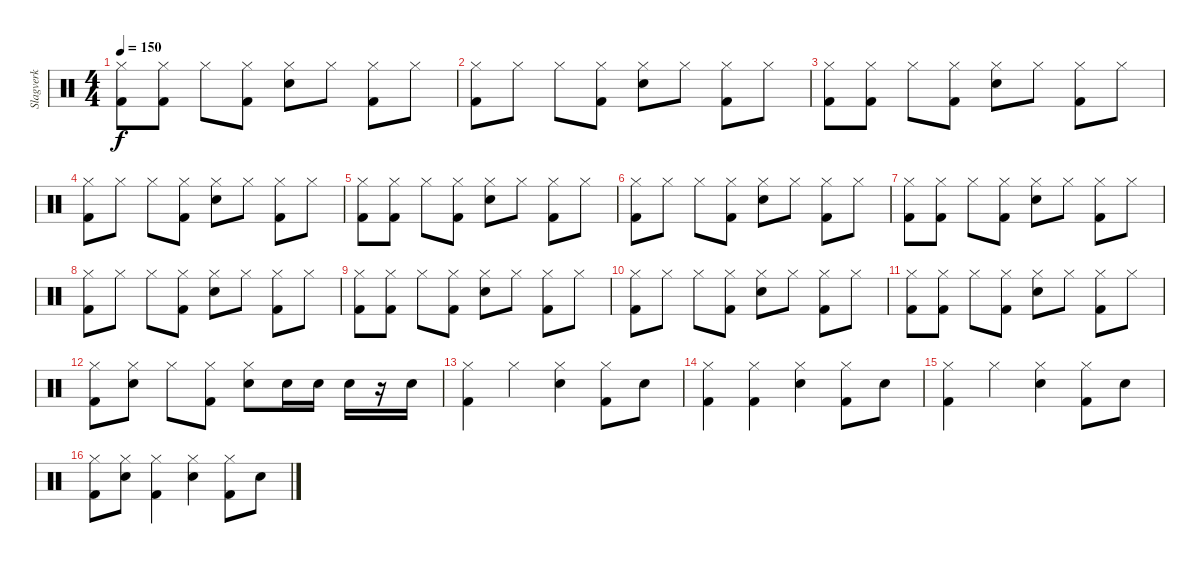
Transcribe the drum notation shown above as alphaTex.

\track ("Slagverk" "Slagverk") {instrument percussion}
\staff {score}
\articulation defaults
\ts (4 4)
\tempo 150
\clef neutral
\ks c
("Hi-Hat (closed)" "Kick (hit) 2").8{dy f} ("Hi-Hat (closed)" "Kick (hit) 2").8 "Hi-Hat (closed)".8 ("Hi-Hat (closed)" "Kick (hit) 2").8 ("Hi-Hat (closed)" "Electric Snare (hit)").8 "Hi-Hat (closed)".8 ("Hi-Hat (closed)" "Kick (hit) 2").8 "Hi-Hat (closed)".8 |
("Hi-Hat (closed)" "Kick (hit) 2").8 "Hi-Hat (closed)".8 "Hi-Hat (closed)".8 ("Hi-Hat (closed)" "Kick (hit) 2").8 ("Hi-Hat (closed)" "Electric Snare (hit)").8 "Hi-Hat (closed)".8 ("Hi-Hat (closed)" "Kick (hit) 2").8 "Hi-Hat (closed)".8 |
("Hi-Hat (closed)" "Kick (hit) 2").8 ("Hi-Hat (closed)" "Kick (hit) 2").8 "Hi-Hat (closed)".8 ("Hi-Hat (closed)" "Kick (hit) 2").8 ("Hi-Hat (closed)" "Electric Snare (hit)").8 "Hi-Hat (closed)".8 ("Hi-Hat (closed)" "Kick (hit) 2").8 "Hi-Hat (closed)".8 |
("Hi-Hat (closed)" "Kick (hit) 2").8 "Hi-Hat (closed)".8 "Hi-Hat (closed)".8 ("Hi-Hat (closed)" "Kick (hit) 2").8 ("Hi-Hat (closed)" "Electric Snare (hit)").8 "Hi-Hat (closed)".8 ("Hi-Hat (closed)" "Kick (hit) 2").8 "Hi-Hat (closed)".8 |
("Hi-Hat (closed)" "Kick (hit) 2").8 ("Hi-Hat (closed)" "Kick (hit) 2").8 "Hi-Hat (closed)".8 ("Hi-Hat (closed)" "Kick (hit) 2").8 ("Hi-Hat (closed)" "Electric Snare (hit)").8 "Hi-Hat (closed)".8 ("Hi-Hat (closed)" "Kick (hit) 2").8 "Hi-Hat (closed)".8 |
("Hi-Hat (closed)" "Kick (hit) 2").8 "Hi-Hat (closed)".8 "Hi-Hat (closed)".8 ("Hi-Hat (closed)" "Kick (hit) 2").8 ("Hi-Hat (closed)" "Electric Snare (hit)").8 "Hi-Hat (closed)".8 ("Hi-Hat (closed)" "Kick (hit) 2").8 "Hi-Hat (closed)".8 |
("Hi-Hat (closed)" "Kick (hit) 2").8 ("Hi-Hat (closed)" "Kick (hit) 2").8 "Hi-Hat (closed)".8 ("Hi-Hat (closed)" "Kick (hit) 2").8 ("Hi-Hat (closed)" "Electric Snare (hit)").8 "Hi-Hat (closed)".8 ("Hi-Hat (closed)" "Kick (hit) 2").8 "Hi-Hat (closed)".8 |
("Hi-Hat (closed)" "Kick (hit) 2").8 "Hi-Hat (closed)".8 "Hi-Hat (closed)".8 ("Hi-Hat (closed)" "Kick (hit) 2").8 ("Hi-Hat (closed)" "Electric Snare (hit)").8 "Hi-Hat (closed)".8 ("Hi-Hat (closed)" "Kick (hit) 2").8 "Hi-Hat (closed)".8 |
("Hi-Hat (closed)" "Kick (hit) 2").8 ("Hi-Hat (closed)" "Kick (hit) 2").8 "Hi-Hat (closed)".8 ("Hi-Hat (closed)" "Kick (hit) 2").8 ("Hi-Hat (closed)" "Electric Snare (hit)").8 "Hi-Hat (closed)".8 ("Hi-Hat (closed)" "Kick (hit) 2").8 "Hi-Hat (closed)".8 |
("Hi-Hat (closed)" "Kick (hit) 2").8 "Hi-Hat (closed)".8 "Hi-Hat (closed)".8 ("Hi-Hat (closed)" "Kick (hit) 2").8 ("Hi-Hat (closed)" "Electric Snare (hit)").8 "Hi-Hat (closed)".8 ("Hi-Hat (closed)" "Kick (hit) 2").8 "Hi-Hat (closed)".8 |
("Hi-Hat (closed)" "Kick (hit) 2").8 ("Hi-Hat (closed)" "Kick (hit) 2").8 "Hi-Hat (closed)".8 ("Hi-Hat (closed)" "Kick (hit) 2").8 ("Hi-Hat (closed)" "Electric Snare (hit)").8 "Hi-Hat (closed)".8 ("Hi-Hat (closed)" "Kick (hit) 2").8 "Hi-Hat (closed)".8 |
("Hi-Hat (closed)" "Kick (hit) 2").8 ("Hi-Hat (closed)" "Electric Snare (hit)").8 "Hi-Hat (closed)".8 ("Hi-Hat (closed)" "Kick (hit) 2").8 ("Hi-Hat (closed)" "Electric Snare (hit)").8 "Electric Snare (hit)".16 "Electric Snare (hit)".16 "Electric Snare (hit)".16 r.16 "Electric Snare (hit)".16 |
("Hi-Hat (closed)" "Kick (hit) 2").4 "Hi-Hat (closed)".4 ("Hi-Hat (closed)" "Electric Snare (hit)").4 ("Hi-Hat (closed)" "Kick (hit) 2").8 "Electric Snare (hit)".8 |
("Hi-Hat (closed)" "Kick (hit) 2").4 ("Hi-Hat (closed)" "Kick (hit) 2").4 ("Hi-Hat (closed)" "Electric Snare (hit)").4 ("Hi-Hat (closed)" "Kick (hit) 2").8 "Electric Snare (hit)".8 |
("Hi-Hat (closed)" "Kick (hit) 2").4 "Hi-Hat (closed)".4 ("Hi-Hat (closed)" "Electric Snare (hit)").4 ("Hi-Hat (closed)" "Kick (hit) 2").8 "Electric Snare (hit)".8 |
("Hi-Hat (closed)" "Kick (hit) 2").8 ("Hi-Hat (closed)" "Electric Snare (hit)").8 ("Hi-Hat (closed)" "Kick (hit) 2").4 ("Hi-Hat (closed)" "Electric Snare (hit)").4 ("Hi-Hat (closed)" "Kick (hit) 2").8 "Electric Snare (hit)".8
